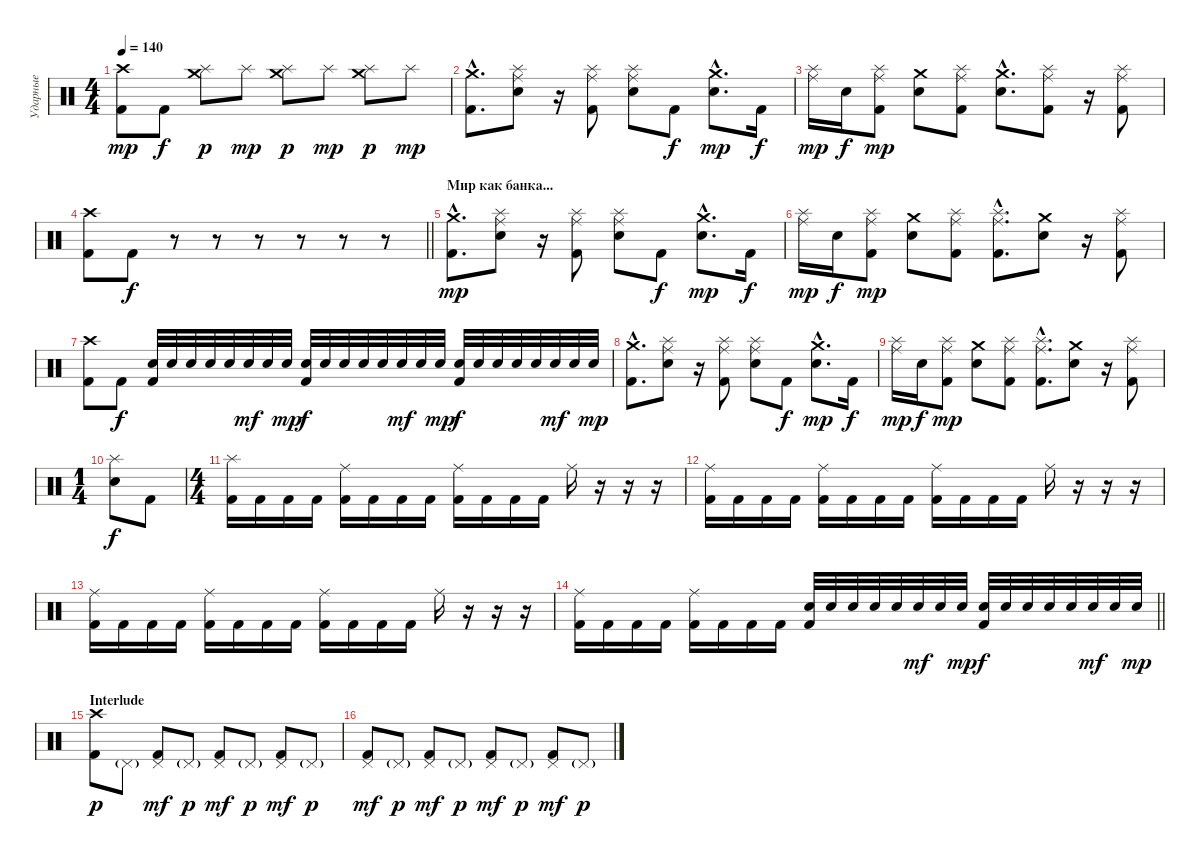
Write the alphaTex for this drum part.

\track ("Ударные" "Ударные") {instrument percussion}
\staff {score}
\articulation defaults
\ts (4 4)
\tempo 140
\clef neutral
\ks c
("Crash high (hit)" "Kick (hit) 2").8{dy mp} "Kick (hit) 2".8{dy f} ("Splash (hit)" "Crash medium (hit)").8{dy p} "Splash (hit)".8{dy mp} ("Splash (hit)" "Crash medium (hit)").8{dy p} "Splash (hit)".8{dy mp} ("Splash (hit)" "Crash medium (hit)").8{dy p} "Splash (hit)".8{dy mp} |
("Crash medium (hit)"{hac} "Kick (hit) 2"{hac}).8{d} ("Splash (hit)" "Ride (middle)" "Snare (hit) 2").8 r.16 ("Splash (hit)" "Ride (middle)" "Kick (hit) 2").8 ("Splash (hit)" "Ride (middle)" "Snare (hit) 2").8 "Kick (hit) 2".8{dy f} ("Crash medium (hit)"{hac} "Snare (hit) 2"{hac}).8{d dy mp} "Kick (hit) 2".16{dy f} |
("Splash (hit)" "Ride (middle)").16{dy mp} "Snare (hit) 2".16{dy f} ("Splash (hit)" "Ride (middle)" "Kick (hit) 2").8{dy mp} ("Crash medium (hit)" "Snare (hit) 2").8 ("Splash (hit)" "Ride (middle)" "Kick (hit) 2").8 ("Crash medium (hit)"{hac} "Snare (hit) 2"{hac}).8{d} ("Splash (hit)" "Ride (middle)" "Kick (hit) 2").8 r.16 ("Splash (hit)" "Ride (middle)" "Kick (hit) 2").8 |
\barLineRight lightlight
("Crash high (hit)" "Kick (hit) 2").8 "Kick (hit) 2".8{dy f} r.8 r.8 r.8 r.8 r.8 r.8 |
\section ("" "Мир как банка...")
("Crash medium (hit)"{hac} "Kick (hit) 2"{hac}).8{d dy mp} ("Splash (hit)" "Ride (middle)" "Snare (hit) 2").8 r.16 ("Splash (hit)" "Ride (middle)" "Kick (hit) 2").8 ("Splash (hit)" "Ride (middle)" "Snare (hit) 2").8 "Kick (hit) 2".8{dy f} ("Crash medium (hit)"{hac} "Snare (hit) 2"{hac}).8{d dy mp} "Kick (hit) 2".16{dy f} |
("Splash (hit)" "Ride (middle)").16{dy mp} "Snare (hit) 2".16{dy f} ("Splash (hit)" "Ride (middle)" "Kick (hit) 2").8{dy mp} ("Crash medium (hit)" "Snare (hit) 2").8 ("Splash (hit)" "Ride (middle)" "Kick (hit) 2").8 ("Splash (hit)"{hac} "Ride (middle)"{hac} "Kick (hit) 2"{hac}).8{d} ("Crash medium (hit)" "Snare (hit) 2").8 r.16 ("Splash (hit)" "Ride (middle)" "Kick (hit) 2").8 |
("Crash high (hit)" "Kick (hit) 2").8 "Kick (hit) 2".8{dy f} ("Snare (hit) 2" "Kick (hit) 2").32 "Snare (hit) 2".32 "Snare (hit) 2".32 "Snare (hit) 2".32 "Snare (hit) 2".32 "Snare (hit) 2".32{dy mf} "Snare (hit) 2".32 "Snare (hit) 2".32{dy mp} ("Snare (hit) 2" "Kick (hit) 2").32{dy f} "Snare (hit) 2".32 "Snare (hit) 2".32 "Snare (hit) 2".32 "Snare (hit) 2".32 "Snare (hit) 2".32{dy mf} "Snare (hit) 2".32 "Snare (hit) 2".32{dy mp} ("Snare (hit) 2" "Kick (hit) 2").32{dy f} "Snare (hit) 2".32 "Snare (hit) 2".32 "Snare (hit) 2".32 "Snare (hit) 2".32 "Snare (hit) 2".32{dy mf} "Snare (hit) 2".32 "Snare (hit) 2".32{dy mp} |
("Crash medium (hit)"{hac} "Kick (hit) 2"{hac}).8{d} ("Splash (hit)" "Ride (middle)" "Snare (hit) 2").8 r.16 ("Splash (hit)" "Ride (middle)" "Kick (hit) 2").8 ("Splash (hit)" "Ride (middle)" "Snare (hit) 2").8 "Kick (hit) 2".8{dy f} ("Crash medium (hit)"{hac} "Snare (hit) 2"{hac}).8{d dy mp} "Kick (hit) 2".16{dy f} |
("Splash (hit)" "Ride (middle)").16{dy mp} "Snare (hit) 2".16{dy f} ("Splash (hit)" "Ride (middle)" "Kick (hit) 2").8{dy mp} ("Crash medium (hit)" "Snare (hit) 2").8 ("Splash (hit)" "Ride (middle)" "Kick (hit) 2").8 ("Splash (hit)"{hac} "Ride (middle)"{hac} "Kick (hit) 2"{hac}).8{d} ("Crash medium (hit)" "Snare (hit) 2").8 r.16 ("Splash (hit)" "Ride (middle)" "Kick (hit) 2").8 |
\ts (1 4)
("Splash (hit)" "Snare (hit) 2").8{dy f} "Kick (hit) 2".8 |
\ts (4 4)
("Splash (hit)" "Kick (hit) 2").16 "Kick (hit) 2".16 "Kick (hit) 2".16 "Kick (hit) 2".16 ("Ride (middle)" "Kick (hit) 2").16 "Kick (hit) 2".16 "Kick (hit) 2".16 "Kick (hit) 2".16 ("Ride (middle)" "Kick (hit) 2").16 "Kick (hit) 2".16 "Kick (hit) 2".16 "Kick (hit) 2".16 "Ride (middle)".16 r.16 r.16 r.16 |
("Ride (middle)" "Kick (hit) 2").16 "Kick (hit) 2".16 "Kick (hit) 2".16 "Kick (hit) 2".16 ("Ride (middle)" "Kick (hit) 2").16 "Kick (hit) 2".16 "Kick (hit) 2".16 "Kick (hit) 2".16 ("Ride (middle)" "Kick (hit) 2").16 "Kick (hit) 2".16 "Kick (hit) 2".16 "Kick (hit) 2".16 "Ride (middle)".16 r.16 r.16 r.16 |
("Ride (middle)" "Kick (hit) 2").16 "Kick (hit) 2".16 "Kick (hit) 2".16 "Kick (hit) 2".16 ("Ride (middle)" "Kick (hit) 2").16 "Kick (hit) 2".16 "Kick (hit) 2".16 "Kick (hit) 2".16 ("Ride (middle)" "Kick (hit) 2").16 "Kick (hit) 2".16 "Kick (hit) 2".16 "Kick (hit) 2".16 "Ride (middle)".16 r.16 r.16 r.16 |
\barLineRight lightlight
("Ride (middle)" "Kick (hit) 2").16 "Kick (hit) 2".16 "Kick (hit) 2".16 "Kick (hit) 2".16 ("Ride (middle)" "Kick (hit) 2").16 "Kick (hit) 2".16 "Kick (hit) 2".16 "Kick (hit) 2".16 ("Snare (hit) 2" "Kick (hit) 2").32 "Snare (hit) 2".32 "Snare (hit) 2".32 "Snare (hit) 2".32 "Snare (hit) 2".32 "Snare (hit) 2".32{dy mf} "Snare (hit) 2".32 "Snare (hit) 2".32{dy mp} ("Snare (hit) 2" "Kick (hit) 2").32{dy f} "Snare (hit) 2".32 "Snare (hit) 2".32 "Snare (hit) 2".32 "Snare (hit) 2".32 "Snare (hit) 2".32{dy mf} "Snare (hit) 2".32 "Snare (hit) 2".32{dy mp} |
\section ("" "Interlude")
("Crash high (hit)" "Kick (hit) 2").8{dy p} "Pedal Hi-Hat (hit)"{g}.8 ("Pedal Hi-Hat (hit)" "Kick (hit) 2").8{dy mf} "Pedal Hi-Hat (hit)"{g}.8{dy p} ("Pedal Hi-Hat (hit)" "Kick (hit) 2").8{dy mf} "Pedal Hi-Hat (hit)"{g}.8{dy p} ("Pedal Hi-Hat (hit)" "Kick (hit) 2").8{dy mf} "Pedal Hi-Hat (hit)"{g}.8{dy p} |
("Pedal Hi-Hat (hit)" "Kick (hit) 2").8{dy mf} "Pedal Hi-Hat (hit)"{g}.8{dy p} ("Pedal Hi-Hat (hit)" "Kick (hit) 2").8{dy mf} "Pedal Hi-Hat (hit)"{g}.8{dy p} ("Pedal Hi-Hat (hit)" "Kick (hit) 2").8{dy mf} "Pedal Hi-Hat (hit)"{g}.8{dy p} ("Pedal Hi-Hat (hit)" "Kick (hit) 2").8{dy mf} "Pedal Hi-Hat (hit)"{g}.8{dy p}
